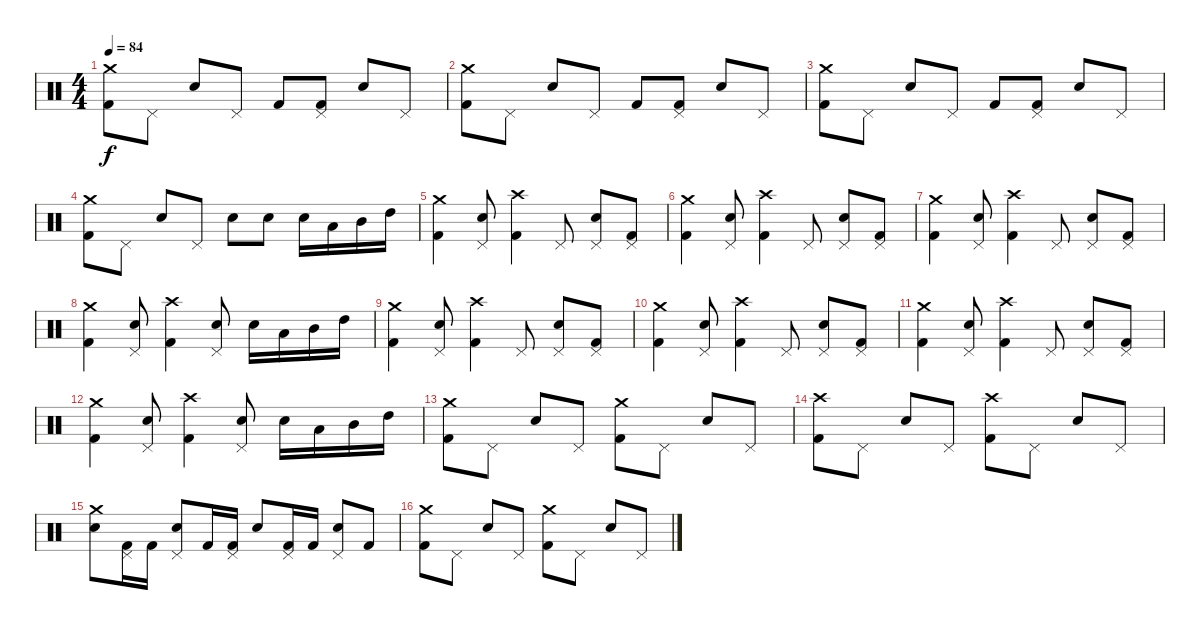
\track "" {instrument percussion}
\staff {score}
\articulation defaults
\ts (4 4)
\tempo 84
\clef neutral
\ks c
("Crash medium (hit)" "Kick (hit) 2").8{dy f} "Pedal Hi-Hat (hit)".8 "Snare (hit) 2".8 "Pedal Hi-Hat (hit)".8 "Kick (hit) 2".8 ("Pedal Hi-Hat (hit)" "Kick (hit) 2").8 "Snare (hit) 2".8 "Pedal Hi-Hat (hit)".8 |
("Crash medium (hit)" "Kick (hit) 2").8 "Pedal Hi-Hat (hit)".8 "Snare (hit) 2".8 "Pedal Hi-Hat (hit)".8 "Kick (hit) 2".8 ("Pedal Hi-Hat (hit)" "Kick (hit) 2").8 "Snare (hit) 2".8 "Pedal Hi-Hat (hit)".8 |
("Crash medium (hit)" "Kick (hit) 2").8 "Pedal Hi-Hat (hit)".8 "Snare (hit) 2".8 "Pedal Hi-Hat (hit)".8 "Kick (hit) 2".8 ("Pedal Hi-Hat (hit)" "Kick (hit) 2").8 "Snare (hit) 2".8 "Pedal Hi-Hat (hit)".8 |
("Crash medium (hit)" "Kick (hit) 2").8 "Pedal Hi-Hat (hit)".8 "Snare (hit) 2".8 "Pedal Hi-Hat (hit)".8 "Electric Snare (hit)".8 "Electric Snare (hit)".8 "Electric Snare (hit)".16 "Low Tom (hit)".16 "Mid Tom (hit)".16 "High Tom (hit)".16 |
("Crash medium (hit)" "Kick (hit) 2").4 ("Pedal Hi-Hat (hit)" "Snare (hit) 2").8 ("Crash high (hit)" "Kick (hit) 2").4 "Pedal Hi-Hat (hit)".8 ("Pedal Hi-Hat (hit)" "Snare (hit) 2").8 ("Pedal Hi-Hat (hit)" "Kick (hit) 2").8 |
("Crash medium (hit)" "Kick (hit) 2").4 ("Pedal Hi-Hat (hit)" "Snare (hit) 2").8 ("Crash high (hit)" "Kick (hit) 2").4 "Pedal Hi-Hat (hit)".8 ("Pedal Hi-Hat (hit)" "Snare (hit) 2").8 ("Pedal Hi-Hat (hit)" "Kick (hit) 2").8 |
("Crash medium (hit)" "Kick (hit) 2").4 ("Pedal Hi-Hat (hit)" "Snare (hit) 2").8 ("Crash high (hit)" "Kick (hit) 2").4 "Pedal Hi-Hat (hit)".8 ("Pedal Hi-Hat (hit)" "Snare (hit) 2").8 ("Pedal Hi-Hat (hit)" "Kick (hit) 2").8 |
("Crash medium (hit)" "Kick (hit) 2").4 ("Pedal Hi-Hat (hit)" "Snare (hit) 2").8 ("Crash high (hit)" "Kick (hit) 2").4 ("Pedal Hi-Hat (hit)" "Snare (hit) 2").8 "Snare (hit) 2".16 "Low Tom (hit)".16 "Mid Tom (hit)".16 "High Tom (hit)".16 |
("Crash medium (hit)" "Kick (hit) 2").4 ("Pedal Hi-Hat (hit)" "Snare (hit) 2").8 ("Crash high (hit)" "Kick (hit) 2").4 "Pedal Hi-Hat (hit)".8 ("Pedal Hi-Hat (hit)" "Snare (hit) 2").8 ("Pedal Hi-Hat (hit)" "Kick (hit) 2").8 |
("Crash medium (hit)" "Kick (hit) 2").4 ("Pedal Hi-Hat (hit)" "Snare (hit) 2").8 ("Crash high (hit)" "Kick (hit) 2").4 "Pedal Hi-Hat (hit)".8 ("Pedal Hi-Hat (hit)" "Snare (hit) 2").8 ("Pedal Hi-Hat (hit)" "Kick (hit) 2").8 |
("Crash medium (hit)" "Kick (hit) 2").4 ("Pedal Hi-Hat (hit)" "Snare (hit) 2").8 ("Crash high (hit)" "Kick (hit) 2").4 "Pedal Hi-Hat (hit)".8 ("Pedal Hi-Hat (hit)" "Snare (hit) 2").8 ("Pedal Hi-Hat (hit)" "Kick (hit) 2").8 |
("Crash medium (hit)" "Kick (hit) 2").4 ("Pedal Hi-Hat (hit)" "Snare (hit) 2").8 ("Crash high (hit)" "Kick (hit) 2").4 ("Pedal Hi-Hat (hit)" "Snare (hit) 2").8 "Snare (hit) 2".16 "Low Tom (hit)".16 "Mid Tom (hit)".16 "High Tom (hit)".16 |
("Crash medium (hit)" "Kick (hit) 2").8 "Pedal Hi-Hat (hit)".8 "Snare (hit) 2".8 "Pedal Hi-Hat (hit)".8 ("Crash medium (hit)" "Kick (hit) 2").8 "Pedal Hi-Hat (hit)".8 "Snare (hit) 2".8 "Pedal Hi-Hat (hit)".8 |
("Crash high (hit)" "Kick (hit) 2").8 "Pedal Hi-Hat (hit)".8 "Snare (hit) 2".8 "Pedal Hi-Hat (hit)".8 ("Crash high (hit)" "Kick (hit) 2").8 "Pedal Hi-Hat (hit)".8 "Snare (hit) 2".8 "Pedal Hi-Hat (hit)".8 |
("Crash medium (hit)" "Snare (hit) 2").8 ("Pedal Hi-Hat (hit)" "Kick (hit) 2").16 "Kick (hit) 2".16 ("Pedal Hi-Hat (hit)" "Snare (hit) 2").8 "Kick (hit) 2".16 ("Pedal Hi-Hat (hit)" "Kick (hit) 2").16 "Snare (hit) 2".8 ("Pedal Hi-Hat (hit)" "Kick (hit) 2").16 "Kick (hit) 2".16 ("Pedal Hi-Hat (hit)" "Snare (hit) 2").8 "Kick (hit) 2".8 |
("Crash medium (hit)" "Kick (hit) 2").8 "Pedal Hi-Hat (hit)".8 "Snare (hit) 2".8 "Pedal Hi-Hat (hit)".8 ("Crash medium (hit)" "Kick (hit) 2").8 "Pedal Hi-Hat (hit)".8 "Snare (hit) 2".8 "Pedal Hi-Hat (hit)".8
